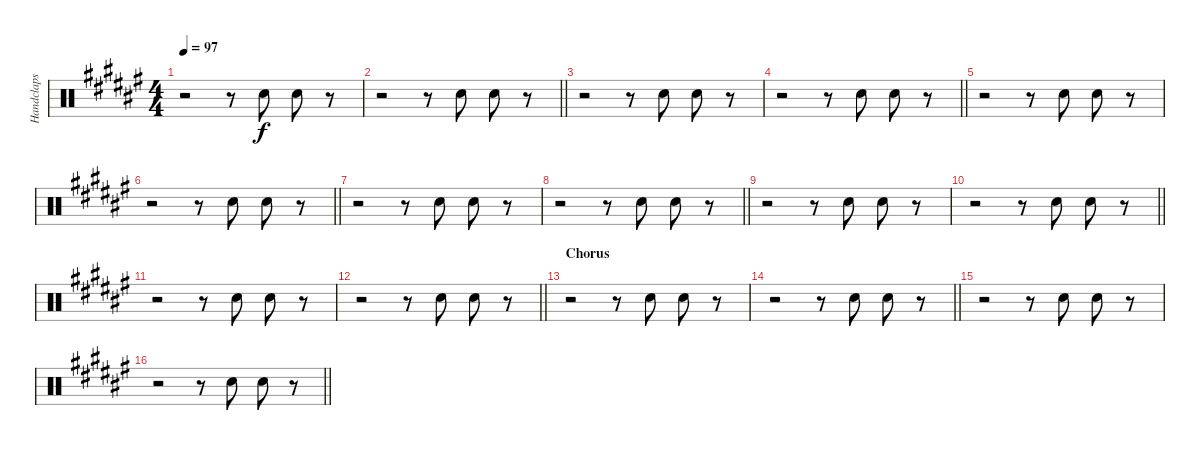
\track ("Handclaps" "Handclaps") {instrument percussion}
\staff {score}
\articulation defaults
\ts (4 4)
\tempo 97
\clef neutral
\ks f#
r.2{dy f} r.8 "Hand Clap (hit)".8 "Hand Clap (hit)".8 r.8 |
\barLineRight lightlight
r.2 r.8 "Hand Clap (hit)".8 "Hand Clap (hit)".8 r.8 |
r.2 r.8 "Hand Clap (hit)".8 "Hand Clap (hit)".8 r.8 |
\barLineRight lightlight
r.2 r.8 "Hand Clap (hit)".8 "Hand Clap (hit)".8 r.8 |
r.2 r.8 "Hand Clap (hit)".8 "Hand Clap (hit)".8 r.8 |
\barLineRight lightlight
r.2 r.8 "Hand Clap (hit)".8 "Hand Clap (hit)".8 r.8 |
r.2 r.8 "Hand Clap (hit)".8 "Hand Clap (hit)".8 r.8 |
\barLineRight lightlight
r.2 r.8 "Hand Clap (hit)".8 "Hand Clap (hit)".8 r.8 |
r.2 r.8 "Hand Clap (hit)".8 "Hand Clap (hit)".8 r.8 |
\barLineRight lightlight
r.2 r.8 "Hand Clap (hit)".8 "Hand Clap (hit)".8 r.8 |
r.2 r.8 "Hand Clap (hit)".8 "Hand Clap (hit)".8 r.8 |
\barLineRight lightlight
r.2 r.8 "Hand Clap (hit)".8 "Hand Clap (hit)".8 r.8 |
\section ("" "Chorus")
r.2 r.8 "Hand Clap (hit)".8 "Hand Clap (hit)".8 r.8 |
\barLineRight lightlight
r.2 r.8 "Hand Clap (hit)".8 "Hand Clap (hit)".8 r.8 |
r.2 r.8 "Hand Clap (hit)".8 "Hand Clap (hit)".8 r.8 |
\barLineRight lightlight
r.2 r.8 "Hand Clap (hit)".8 "Hand Clap (hit)".8 r.8
